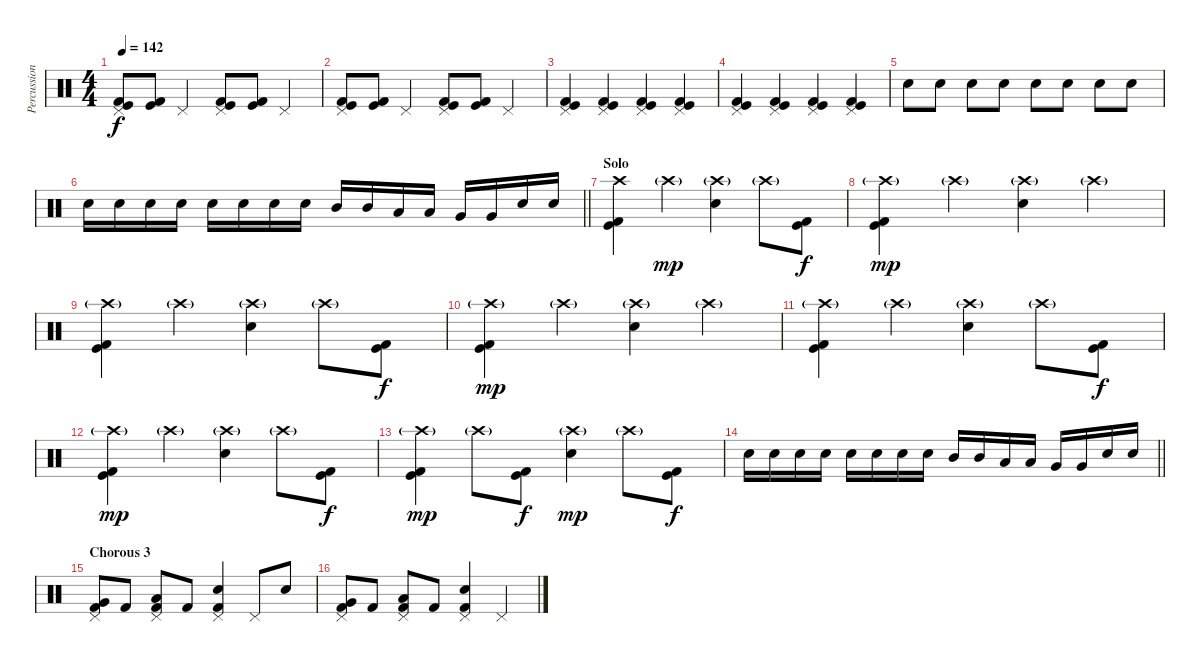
\track ("Percussion" "Percussion") {instrument percussion}
\staff {score}
\articulation defaults
\ts (4 4)
\tempo 142
\clef neutral
\ks c
("Pedal Hi-Hat (hit)" "Kick (hit)" "Kick (hit) 2").8{dy f} ("Kick (hit)" "Kick (hit) 2").8 "Pedal Hi-Hat (hit)".4 ("Pedal Hi-Hat (hit)" "Kick (hit)" "Kick (hit) 2").8 ("Kick (hit)" "Kick (hit) 2").8 "Pedal Hi-Hat (hit)".4 |
("Pedal Hi-Hat (hit)" "Kick (hit)" "Kick (hit) 2").8 ("Kick (hit)" "Kick (hit) 2").8 "Pedal Hi-Hat (hit)".4 ("Pedal Hi-Hat (hit)" "Kick (hit)" "Kick (hit) 2").8 ("Kick (hit)" "Kick (hit) 2").8 "Pedal Hi-Hat (hit)".4 |
("Pedal Hi-Hat (hit)" "Kick (hit)" "Kick (hit) 2").4 ("Pedal Hi-Hat (hit)" "Kick (hit)" "Kick (hit) 2").4 ("Pedal Hi-Hat (hit)" "Kick (hit)" "Kick (hit) 2").4 ("Pedal Hi-Hat (hit)" "Kick (hit)" "Kick (hit) 2").4 |
("Pedal Hi-Hat (hit)" "Kick (hit)" "Kick (hit) 2").4 ("Pedal Hi-Hat (hit)" "Kick (hit)" "Kick (hit) 2").4 ("Pedal Hi-Hat (hit)" "Kick (hit)" "Kick (hit) 2").4 ("Pedal Hi-Hat (hit)" "Kick (hit)" "Kick (hit) 2").4 |
"Electric Snare (hit)".8 "Electric Snare (hit)".8 "Electric Snare (hit)".8 "Electric Snare (hit)".8 "Electric Snare (hit)".8 "Electric Snare (hit)".8 "Electric Snare (hit)".8 "Electric Snare (hit)".8 |
\barLineRight lightlight "Electric Snare (hit)".16 "Electric Snare (hit)".16 "Electric Snare (hit)".16 "Electric Snare (hit)".16 "Electric Snare (hit)".16 "Electric Snare (hit)".16 "Electric Snare (hit)".16 "Electric Snare (hit)".16 "Mid Tom (hit)".16 "Mid Tom (hit)".16 "Low Tom (hit)".16 "Low Tom (hit)".16 "Very Low Tom (hit)".16 "Very Low Tom (hit)".16 "Electric Snare (hit)".16 "Electric Snare (hit)".16
|
\section ("" "Solo")
("Crash high (hit)" "Kick (hit)" "Kick (hit) 2").4 "Crash high (hit)"{g}.4{dy mp} ("Crash high (hit)"{g} "Electric Snare (hit)").4 "Crash high (hit)"{g}.8 ("Kick (hit)" "Kick (hit) 2").8{dy f} |
("Crash high (hit)"{g} "Kick (hit)" "Kick (hit) 2").4{dy mp} "Crash high (hit)"{g}.4 ("Crash high (hit)"{g} "Electric Snare (hit)").4 "Crash high (hit)"{g}.4 |
("Crash high (hit)"{g} "Kick (hit)" "Kick (hit) 2").4 "Crash high (hit)"{g}.4 ("Crash high (hit)"{g} "Electric Snare (hit)").4 "Crash high (hit)"{g}.8 ("Kick (hit)" "Kick (hit) 2").8{dy f} |
("Crash high (hit)"{g} "Kick (hit)" "Kick (hit) 2").4{dy mp} "Crash high (hit)"{g}.4 ("Crash high (hit)"{g} "Electric Snare (hit)").4 "Crash high (hit)"{g}.4 |
("Crash high (hit)"{g} "Kick (hit)" "Kick (hit) 2").4 "Crash high (hit)"{g}.4 ("Crash high (hit)"{g} "Electric Snare (hit)").4 "Crash high (hit)"{g}.8 ("Kick (hit)" "Kick (hit) 2").8{dy f} |
("Crash high (hit)"{g} "Kick (hit)" "Kick (hit) 2").4{dy mp} "Crash high (hit)"{g}.4 ("Crash high (hit)"{g} "Electric Snare (hit)").4 "Crash high (hit)"{g}.8 ("Kick (hit)" "Kick (hit) 2").8{dy f} |
("Crash high (hit)"{g} "Kick (hit)" "Kick (hit) 2").4{dy mp} "Crash high (hit)"{g}.8 ("Kick (hit)" "Kick (hit) 2").8{dy f} ("Crash high (hit)"{g} "Electric Snare (hit)").4{dy mp} "Crash high (hit)"{g}.8 ("Kick (hit)" "Kick (hit) 2").8{dy f} |
\barLineRight lightlight "Electric Snare (hit)".16 "Electric Snare (hit)".16 "Electric Snare (hit)".16 "Electric Snare (hit)".16 "Electric Snare (hit)".16 "Electric Snare (hit)".16 "Electric Snare (hit)".16 "Electric Snare (hit)".16 "Mid Tom (hit)".16 "Mid Tom (hit)".16 "Low Tom (hit)".16 "Low Tom (hit)".16 "Very Low Tom (hit)".16 "Very Low Tom (hit)".16 "Electric Snare (hit)".16 "Electric Snare (hit)".16
|
\section ("" "Chorous 3")
("Pedal Hi-Hat (hit)" "Kick (hit) 2" "Very Low Tom (hit)").8 "Kick (hit) 2".8 ("Pedal Hi-Hat (hit)" "Kick (hit) 2" "Low Floor Tom (hit)").8 "Kick (hit) 2".8 ("Pedal Hi-Hat (hit)" "Electric Snare (hit)" "Kick (hit) 2").4 "Pedal Hi-Hat (hit)".8 "Electric Snare (hit)".8 |
("Pedal Hi-Hat (hit)" "Kick (hit) 2" "Very Low Tom (hit)").8 "Kick (hit) 2".8 ("Pedal Hi-Hat (hit)" "Kick (hit) 2" "Low Floor Tom (hit)").8 "Kick (hit) 2".8 ("Pedal Hi-Hat (hit)" "Electric Snare (hit)" "Kick (hit) 2").4 "Pedal Hi-Hat (hit)".4
